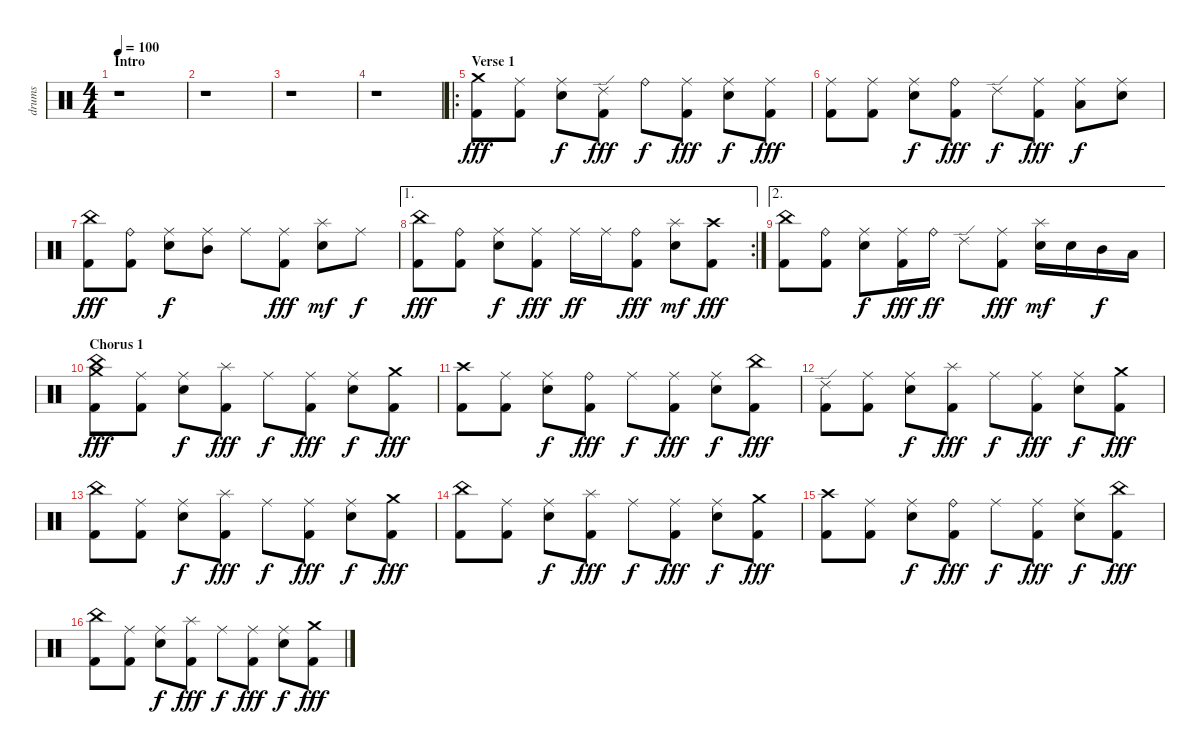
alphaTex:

\track ("drums" "drums") {instrument percussion}
\staff {score}
\articulation defaults
\ts (4 4)
\section ("" "Intro")
\tempo 100
\clef neutral
\ks c
r.1{dy fff} |
r.1 |
r.1 |
r.1 |
\ro
\section ("" "Verse 1")
("Crash medium (hit)" "Kick (hit) 2").8 ("Ride (middle)" "Kick (hit) 2").8 ("Ride (middle)" "Electric Snare (hit)").8{dy f} ("Ride (edge) 2" "Kick (hit) 2").8{dy fff} "Ride (bell)".8{dy f} ("Ride (middle)" "Kick (hit) 2").8{dy fff} ("Ride (middle)" "Electric Snare (hit)").8{dy f} ("Ride (middle)" "Kick (hit) 2").8{dy fff} |
("Ride (middle)" "Kick (hit) 2").8 ("Ride (middle)" "Kick (hit) 2").8 ("Ride (middle)" "Electric Snare (hit)").8{dy f} ("Ride (bell)" "Kick (hit) 2").8{dy fff} "Ride (edge) 2".8{dy f} ("Ride (middle)" "Kick (hit) 2").8{dy fff} ("Ride (middle)" "Low Tom (hit)").8{dy f} ("Ride (middle)" "Electric Snare (hit)").8 |
("China (hit)" "Kick (hit) 2").8{dy fff} ("Ride (bell)" "Kick (hit) 2").8 ("Ride (middle)" "Electric Snare (hit)").8{dy f} ("Ride (middle)" "Mid Tom (hit)").8 "Ride (middle)".8 ("Ride (middle)" "Kick (hit) 2").8{dy fff} ("Splash (hit)" "Electric Snare (hit)").8{dy mf} "Ride (middle)".8{dy f} |
\ae 1
\rc 2
("China (hit)" "Kick (hit) 2").8{dy fff} ("Ride (bell)" "Kick (hit) 2").8 ("Ride (middle)" "Electric Snare (hit)").8{dy f} ("Ride (middle)" "Kick (hit) 2").8{dy fff} "Ride (middle)".16{dy ff} "Ride (middle)".16 ("Ride (bell)" "Kick (hit) 2").8{dy fff} ("Splash (hit)" "Electric Snare (hit)").8{dy mf} ("Crash high (hit)" "Kick (hit) 2").8{dy fff} |
\ae 2
("China (hit)" "Kick (hit) 2").8 ("Ride (bell)" "Kick (hit) 2").8 ("Ride (middle)" "Electric Snare (hit)").8{dy f} ("Ride (middle)" "Kick (hit) 2").16{dy fff} "Ride (bell)".16{dy ff} "Ride (edge) 2".8 ("Ride (middle)" "Kick (hit) 2").8{dy fff} ("Splash (hit)" "Electric Snare (hit)").16{dy mf} "Electric Snare (hit)".16 "Mid Tom (hit)".16{dy f} "Low Tom (hit)".16 |
\section ("" "Chorus 1")
("China (hit)" "Crash medium (hit)" "Kick (hit) 2").8{dy fff} ("Ride (middle)" "Kick (hit) 2").8 ("Ride (middle)" "Electric Snare (hit)").8{dy f} ("Splash (hit)" "Kick (hit) 2").8{dy fff} "Ride (middle)".8{dy f} ("Ride (middle)" "Kick (hit) 2").8{dy fff} ("Ride (middle)" "Electric Snare (hit)").8{dy f} ("Crash medium (hit)" "Kick (hit) 2").8{dy fff} |
("Crash high (hit)" "Kick (hit) 2").8 ("Ride (middle)" "Kick (hit) 2").8 ("Ride (middle)" "Electric Snare (hit)").8{dy f} ("Ride (bell)" "Kick (hit) 2").8{dy fff} "Ride (middle)".8{dy f} ("Ride (middle)" "Kick (hit) 2").8{dy fff} ("Ride (middle)" "Electric Snare (hit)").8{dy f} ("China (hit)" "Kick (hit) 2").8{dy fff} |
("Ride (edge) 2" "Kick (hit) 2").8 ("Ride (middle)" "Kick (hit) 2").8 ("Ride (middle)" "Electric Snare (hit)").8{dy f} ("Splash (hit)" "Kick (hit) 2").8{dy fff} "Ride (middle)".8{dy f} ("Ride (middle)" "Kick (hit) 2").8{dy fff} ("Ride (middle)" "Electric Snare (hit)").8{dy f} ("Crash medium (hit)" "Kick (hit) 2").8{dy fff} |
("China (hit)" "Kick (hit) 2").8 ("Ride (middle)" "Kick (hit) 2").8 ("Ride (middle)" "Electric Snare (hit)").8{dy f} ("Splash (hit)" "Kick (hit) 2").8{dy fff} "Ride (middle)".8{dy f} ("Ride (middle)" "Kick (hit) 2").8{dy fff} ("Ride (middle)" "Electric Snare (hit)").8{dy f} ("Crash medium (hit)" "Kick (hit) 2").8{dy fff} |
("China (hit)" "Kick (hit) 2").8 ("Ride (middle)" "Kick (hit) 2").8 ("Ride (middle)" "Electric Snare (hit)").8{dy f} ("Splash (hit)" "Kick (hit) 2").8{dy fff} "Ride (middle)".8{dy f} ("Ride (middle)" "Kick (hit) 2").8{dy fff} ("Ride (middle)" "Electric Snare (hit)").8{dy f} ("Crash medium (hit)" "Kick (hit) 2").8{dy fff} |
("Crash high (hit)" "Kick (hit) 2").8 ("Ride (middle)" "Kick (hit) 2").8 ("Ride (middle)" "Electric Snare (hit)").8{dy f} ("Ride (bell)" "Kick (hit) 2").8{dy fff} "Ride (middle)".8{dy f} ("Ride (middle)" "Kick (hit) 2").8{dy fff} ("Ride (middle)" "Electric Snare (hit)").8{dy f} ("China (hit)" "Kick (hit) 2").8{dy fff} |
("China (hit)" "Kick (hit) 2").8 ("Ride (middle)" "Kick (hit) 2").8 ("Ride (middle)" "Electric Snare (hit)").8{dy f} ("Splash (hit)" "Kick (hit) 2").8{dy fff} "Ride (middle)".8{dy f} ("Ride (middle)" "Kick (hit) 2").8{dy fff} ("Ride (middle)" "Electric Snare (hit)").8{dy f} ("Crash medium (hit)" "Kick (hit) 2").8{dy fff}
